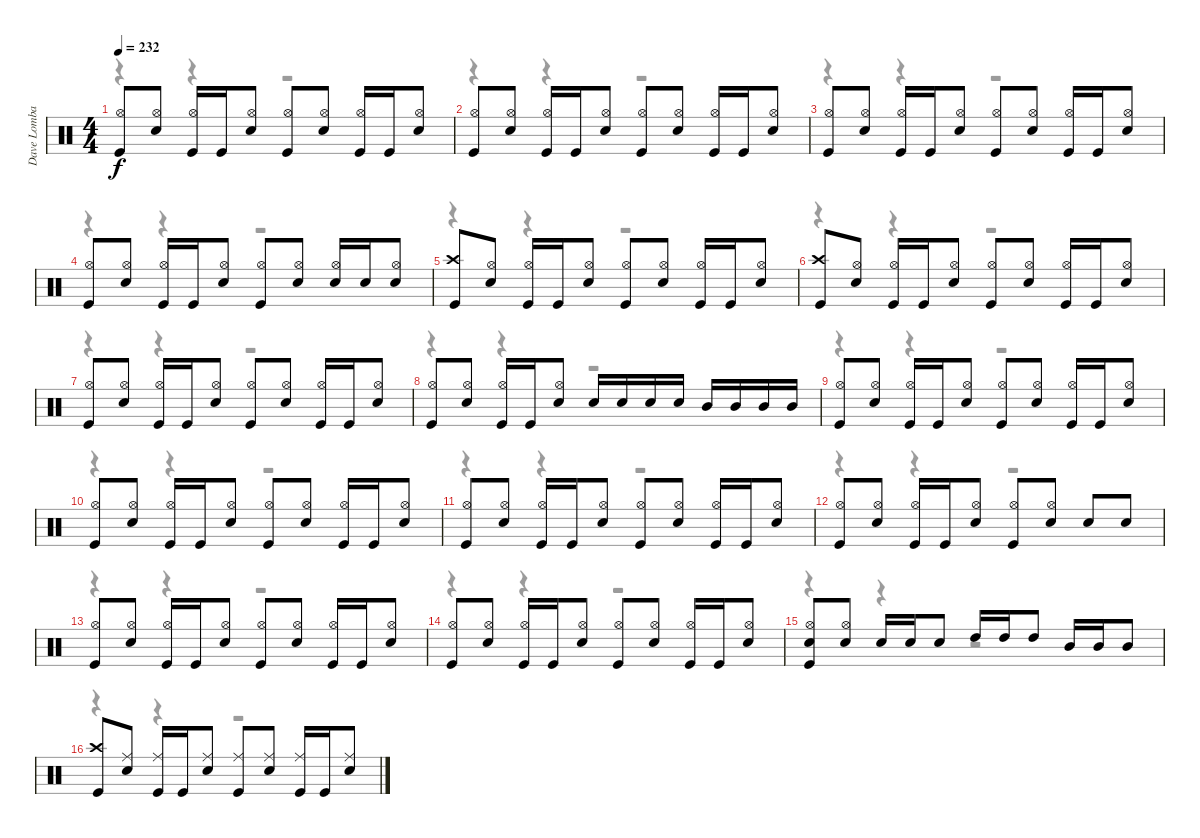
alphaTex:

\track ("Dave Lombardo" "Dave Lomba") {instrument percussion}
\staff {score}
\articulation defaults
\voice
\ts (4 4)
\tempo 232
\clef neutral
\ks c
("Hi-Hat (open)" "Kick (hit)").8{dy f} ("Hi-Hat (open)" "Snare (hit) 2").8 ("Hi-Hat (open)" "Kick (hit)").16 "Kick (hit)".16 ("Hi-Hat (open)" "Snare (hit) 2").8 ("Hi-Hat (open)" "Kick (hit)").8 ("Hi-Hat (open)" "Snare (hit) 2").8 ("Hi-Hat (open)" "Kick (hit)").16 "Kick (hit)".16 ("Hi-Hat (open)" "Snare (hit) 2").8 |
("Hi-Hat (open)" "Kick (hit)").8 ("Hi-Hat (open)" "Snare (hit) 2").8 ("Hi-Hat (open)" "Kick (hit)").16 "Kick (hit)".16 ("Hi-Hat (open)" "Snare (hit) 2").8 ("Hi-Hat (open)" "Kick (hit)").8 ("Hi-Hat (open)" "Snare (hit) 2").8 ("Hi-Hat (open)" "Kick (hit)").16 "Kick (hit)".16 ("Hi-Hat (open)" "Snare (hit) 2").8 |
("Hi-Hat (open)" "Kick (hit)").8 ("Hi-Hat (open)" "Snare (hit) 2").8 ("Hi-Hat (open)" "Kick (hit)").16 "Kick (hit)".16 ("Hi-Hat (open)" "Snare (hit) 2").8 ("Hi-Hat (open)" "Kick (hit)").8 ("Hi-Hat (open)" "Snare (hit) 2").8 ("Hi-Hat (open)" "Kick (hit)").16 "Kick (hit)".16 ("Hi-Hat (open)" "Snare (hit) 2").8 |
("Hi-Hat (open)" "Kick (hit)").8 ("Hi-Hat (open)" "Snare (hit) 2").8 ("Hi-Hat (open)" "Kick (hit)").16 "Kick (hit)".16 ("Hi-Hat (open)" "Snare (hit) 2").8 ("Hi-Hat (open)" "Kick (hit)").8 ("Hi-Hat (open)" "Snare (hit) 2").8 ("Hi-Hat (open)" "Snare (hit) 2").16 "Snare (hit) 2".16 ("Hi-Hat (open)" "Snare (hit) 2").8 |
("Crash high (hit)" "Kick (hit)").8 ("Hi-Hat (open)" "Snare (hit) 2").8 ("Hi-Hat (open)" "Kick (hit)").16 "Kick (hit)".16 ("Hi-Hat (open)" "Snare (hit) 2").8 ("Hi-Hat (open)" "Kick (hit)").8 ("Hi-Hat (open)" "Snare (hit) 2").8 ("Hi-Hat (open)" "Kick (hit)").16 "Kick (hit)".16 ("Hi-Hat (open)" "Snare (hit) 2").8 |
("Crash high (hit)" "Kick (hit)").8 ("Hi-Hat (open)" "Snare (hit) 2").8 ("Hi-Hat (open)" "Kick (hit)").16 "Kick (hit)".16 ("Hi-Hat (open)" "Snare (hit) 2").8 ("Hi-Hat (open)" "Kick (hit)").8 ("Hi-Hat (open)" "Snare (hit) 2").8 ("Hi-Hat (open)" "Kick (hit)").16 "Kick (hit)".16 ("Hi-Hat (open)" "Snare (hit) 2").8 |
("Hi-Hat (open)" "Kick (hit)").8 ("Hi-Hat (open)" "Snare (hit) 2").8 ("Hi-Hat (open)" "Kick (hit)").16 "Kick (hit)".16 ("Hi-Hat (open)" "Snare (hit) 2").8 ("Hi-Hat (open)" "Kick (hit)").8 ("Hi-Hat (open)" "Snare (hit) 2").8 ("Hi-Hat (open)" "Kick (hit)").16 "Kick (hit)".16 ("Hi-Hat (open)" "Snare (hit) 2").8 |
("Hi-Hat (open)" "Kick (hit)").8 ("Hi-Hat (open)" "Snare (hit) 2").8 ("Hi-Hat (open)" "Kick (hit)").16 "Kick (hit)".16 ("Hi-Hat (open)" "Snare (hit) 2").8 "Snare (hit) 2".16 "Snare (hit) 2".16 "Snare (hit) 2".16 "Snare (hit) 2".16 "Mid Tom (hit)".16 "Mid Tom (hit)".16 "Mid Tom (hit)".16 "Mid Tom (hit)".16 |
("Hi-Hat (open)" "Kick (hit)").8 ("Hi-Hat (open)" "Snare (hit) 2").8 ("Hi-Hat (open)" "Kick (hit)").16 "Kick (hit)".16 ("Hi-Hat (open)" "Snare (hit) 2").8 ("Hi-Hat (open)" "Kick (hit)").8 ("Hi-Hat (open)" "Snare (hit) 2").8 ("Hi-Hat (open)" "Kick (hit)").16 "Kick (hit)".16 ("Hi-Hat (open)" "Snare (hit) 2").8 |
("Hi-Hat (open)" "Kick (hit)").8 ("Hi-Hat (open)" "Snare (hit) 2").8 ("Hi-Hat (open)" "Kick (hit)").16 "Kick (hit)".16 ("Hi-Hat (open)" "Snare (hit) 2").8 ("Hi-Hat (open)" "Kick (hit)").8 ("Hi-Hat (open)" "Snare (hit) 2").8 ("Hi-Hat (open)" "Kick (hit)").16 "Kick (hit)".16 ("Hi-Hat (open)" "Snare (hit) 2").8 |
("Hi-Hat (open)" "Kick (hit)").8 ("Hi-Hat (open)" "Snare (hit) 2").8 ("Hi-Hat (open)" "Kick (hit)").16 "Kick (hit)".16 ("Hi-Hat (open)" "Snare (hit) 2").8 ("Hi-Hat (open)" "Kick (hit)").8 ("Hi-Hat (open)" "Snare (hit) 2").8 ("Hi-Hat (open)" "Kick (hit)").16 "Kick (hit)".16 ("Hi-Hat (open)" "Snare (hit) 2").8 |
("Hi-Hat (open)" "Kick (hit)").8 ("Hi-Hat (open)" "Snare (hit) 2").8 ("Hi-Hat (open)" "Kick (hit)").16 "Kick (hit)".16 ("Hi-Hat (open)" "Snare (hit) 2").8 ("Hi-Hat (open)" "Kick (hit)").8 ("Hi-Hat (open)" "Snare (hit) 2").8 "Snare (hit) 2".8 "Snare (hit) 2".8 |
("Hi-Hat (open)" "Kick (hit)").8 ("Hi-Hat (open)" "Snare (hit) 2").8 ("Hi-Hat (open)" "Kick (hit)").16 "Kick (hit)".16 ("Hi-Hat (open)" "Snare (hit) 2").8 ("Hi-Hat (open)" "Kick (hit)").8 ("Hi-Hat (open)" "Snare (hit) 2").8 ("Hi-Hat (open)" "Kick (hit)").16 "Kick (hit)".16 ("Hi-Hat (open)" "Snare (hit) 2").8 |
("Hi-Hat (open)" "Kick (hit)").8 ("Hi-Hat (open)" "Snare (hit) 2").8 ("Hi-Hat (open)" "Kick (hit)").16 "Kick (hit)".16 ("Hi-Hat (open)" "Snare (hit) 2").8 ("Hi-Hat (open)" "Kick (hit)").8 ("Hi-Hat (open)" "Snare (hit) 2").8 ("Hi-Hat (open)" "Kick (hit)").16 "Kick (hit)".16 ("Hi-Hat (open)" "Snare (hit) 2").8 |
("Hi-Hat (open)" "Snare (hit) 2" "Kick (hit)").8 ("Hi-Hat (open)" "Snare (hit) 2").8 "Snare (hit) 2".16 "Snare (hit) 2".16 "Snare (hit) 2".8 "High Tom (hit)".16 "High Tom (hit)".16 "High Tom (hit)".8 "Mid Tom (hit)".16 "Mid Tom (hit)".16 "Mid Tom (hit)".8 |
("Crash high (hit)" "Kick (hit)").8 ("Ride (middle)" "Snare (hit) 2").8 ("Ride (middle)" "Kick (hit)").16 "Kick (hit)".16 ("Ride (middle)" "Snare (hit) 2").8 ("Ride (middle)" "Kick (hit)").8 ("Ride (middle)" "Snare (hit) 2").8 ("Ride (middle)" "Kick (hit)").16 "Kick (hit)".16 ("Ride (middle)" "Snare (hit) 2").8
\voice
\clef neutral
\ottava regular
\simile none
\ks c
r.4{dy f} r.4 r.2 |
r.4 r.4 r.2 |
r.4 r.4 r.2 |
r.4 r.4 r.2 |
r.4 r.4 r.2 |
r.4 r.4 r.2 |
r.4 r.4 r.2 |
r.4 r.4 r.2 |
r.4 r.4 r.2 |
r.4 r.4 r.2 |
r.4 r.4 r.2 |
r.4 r.4 r.2 |
r.4 r.4 r.2 |
r.4 r.4 r.2 |
r.4 r.4 r.2 |
r.4 r.4 r.2
